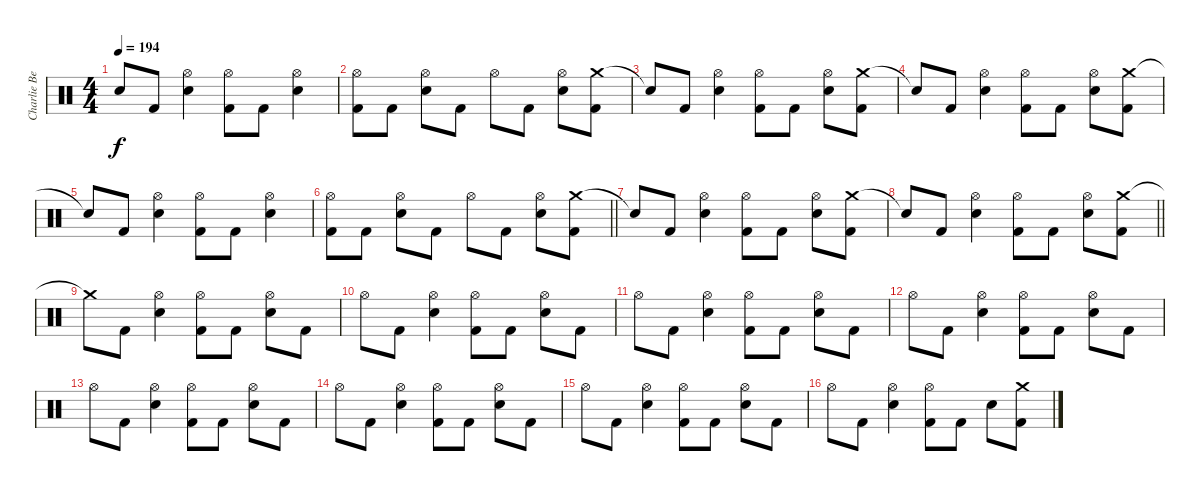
\track ("Charlie Benate " "Charlie Be") {instrument percussion}
\staff {score}
\articulation defaults
\ts (4 4)
\tempo 194
\clef neutral
\ks c "Snare (hit)"{t}.8{dy f} "Kick (hit) 2".8
("Hi-Hat (open)" "Snare (hit) 2").4 ("Hi-Hat (open)" "Kick (hit) 2").8 "Kick (hit) 2".8 ("Hi-Hat (open)" "Snare (hit) 2").4 |
("Hi-Hat (open)" "Kick (hit) 2").8 "Kick (hit) 2".8 ("Hi-Hat (open)" "Snare (hit) 2").8 "Kick (hit) 2".8 "Hi-Hat (open)".8 "Kick (hit) 2".8 ("Hi-Hat (open)" "Snare (hit) 2").8 ("Crash medium (hit)" "Kick (hit) 2").8 |
"Snare (hit)"{t}.8 "Kick (hit) 2".8 ("Hi-Hat (open)" "Snare (hit) 2").4 ("Hi-Hat (open)" "Kick (hit) 2").8 "Kick (hit) 2".8 ("Hi-Hat (open)" "Snare (hit) 2").8 ("Crash medium (hit)" "Kick (hit) 2").8 |
"Snare (hit)"{t}.8 "Kick (hit) 2".8 ("Hi-Hat (open)" "Snare (hit) 2").4 ("Hi-Hat (open)" "Kick (hit) 2").8 "Kick (hit) 2".8 ("Hi-Hat (open)" "Snare (hit) 2").8 ("Crash medium (hit)" "Kick (hit) 2").8 |
"Snare (hit)"{t}.8 "Kick (hit) 2".8 ("Hi-Hat (open)" "Snare (hit) 2").4 ("Hi-Hat (open)" "Kick (hit) 2").8 "Kick (hit) 2".8 ("Hi-Hat (open)" "Snare (hit) 2").4 |
\barLineRight lightlight
("Hi-Hat (open)" "Kick (hit) 2").8 "Kick (hit) 2".8 ("Hi-Hat (open)" "Snare (hit) 2").8 "Kick (hit) 2".8 "Hi-Hat (open)".8 "Kick (hit) 2".8 ("Hi-Hat (open)" "Snare (hit) 2").8 ("Crash medium (hit)" "Kick (hit) 2").8 |
"Snare (hit)"{t}.8 "Kick (hit) 2".8 ("Hi-Hat (open)" "Snare (hit) 2").4 ("Hi-Hat (open)" "Kick (hit) 2").8 "Kick (hit) 2".8 ("Hi-Hat (open)" "Snare (hit) 2").8 ("Crash medium (hit)" "Kick (hit) 2").8 |
\barLineRight lightlight "Snare (hit)"{t}.8 "Kick (hit) 2".8
("Hi-Hat (open)" "Snare (hit) 2").4 ("Hi-Hat (open)" "Kick (hit) 2").8 "Kick (hit) 2".8 ("Hi-Hat (open)" "Snare (hit) 2").8 ("Crash medium (hit)" "Kick (hit) 2").8 |
"Crash medium (hit)"{t}.8 "Kick (hit) 2".8 ("Hi-Hat (open)" "Snare (hit) 2").4 ("Hi-Hat (open)" "Kick (hit) 2").8 "Kick (hit) 2".8 ("Hi-Hat (open)" "Snare (hit) 2").8 "Kick (hit) 2".8 |
"Hi-Hat (open)".8 "Kick (hit) 2".8 ("Hi-Hat (open)" "Snare (hit) 2").4 ("Hi-Hat (open)" "Kick (hit) 2").8 "Kick (hit) 2".8 ("Hi-Hat (open)" "Snare (hit) 2").8 "Kick (hit) 2".8 |
"Hi-Hat (open)".8 "Kick (hit) 2".8 ("Hi-Hat (open)" "Snare (hit) 2").4 ("Hi-Hat (open)" "Kick (hit) 2").8 "Kick (hit) 2".8 ("Hi-Hat (open)" "Snare (hit) 2").8 "Kick (hit) 2".8 |
"Hi-Hat (open)".8 "Kick (hit) 2".8 ("Hi-Hat (open)" "Snare (hit) 2").4 ("Hi-Hat (open)" "Kick (hit) 2").8 "Kick (hit) 2".8 ("Hi-Hat (open)" "Snare (hit) 2").8 "Kick (hit) 2".8 |
"Hi-Hat (open)".8 "Kick (hit) 2".8 ("Hi-Hat (open)" "Snare (hit) 2").4 ("Hi-Hat (open)" "Kick (hit) 2").8 "Kick (hit) 2".8 ("Hi-Hat (open)" "Snare (hit) 2").8 "Kick (hit) 2".8 |
"Hi-Hat (open)".8 "Kick (hit) 2".8 ("Hi-Hat (open)" "Snare (hit) 2").4 ("Hi-Hat (open)" "Kick (hit) 2").8 "Kick (hit) 2".8 ("Hi-Hat (open)" "Snare (hit) 2").8 "Kick (hit) 2".8 |
"Hi-Hat (open)".8 "Kick (hit) 2".8 ("Hi-Hat (open)" "Snare (hit) 2").4 ("Hi-Hat (open)" "Kick (hit) 2").8 "Kick (hit) 2".8 ("Hi-Hat (open)" "Snare (hit) 2").8 "Kick (hit) 2".8 |
"Hi-Hat (open)".8 "Kick (hit) 2".8 ("Hi-Hat (open)" "Snare (hit) 2").4 ("Hi-Hat (open)" "Kick (hit) 2").8 "Kick (hit) 2".8 "Snare (hit) 2".8 ("Crash medium (hit)" "Kick (hit) 2").8
